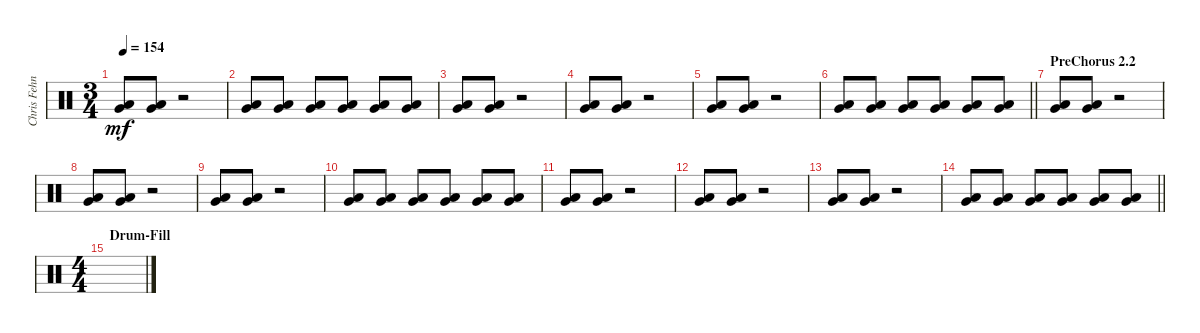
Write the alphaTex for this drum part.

\track ("Chris Fehn" "Chris Fehn") {instrument percussion}
\staff {score}
\articulation defaults
\ts (3 4)
\tempo 154
\clef neutral
\ks c
("Very Low Tom (hit)" "Low Floor Tom (hit)").8{dy mf} ("Very Low Tom (hit)" "Low Floor Tom (hit)").8 r.2 |
("Very Low Tom (hit)" "Low Floor Tom (hit)").8 ("Very Low Tom (hit)" "Low Floor Tom (hit)").8 ("Very Low Tom (hit)" "Low Floor Tom (hit)").8 ("Very Low Tom (hit)" "Low Floor Tom (hit)").8 ("Very Low Tom (hit)" "Low Floor Tom (hit)").8 ("Very Low Tom (hit)" "Low Floor Tom (hit)").8 |
("Very Low Tom (hit)" "Low Floor Tom (hit)").8 ("Very Low Tom (hit)" "Low Floor Tom (hit)").8 r.2 |
("Very Low Tom (hit)" "Low Floor Tom (hit)").8 ("Very Low Tom (hit)" "Low Floor Tom (hit)").8 r.2 |
("Very Low Tom (hit)" "Low Floor Tom (hit)").8 ("Very Low Tom (hit)" "Low Floor Tom (hit)").8 r.2 |
\barLineRight lightlight
("Very Low Tom (hit)" "Low Floor Tom (hit)").8 ("Very Low Tom (hit)" "Low Floor Tom (hit)").8 ("Very Low Tom (hit)" "Low Floor Tom (hit)").8 ("Very Low Tom (hit)" "Low Floor Tom (hit)").8 ("Very Low Tom (hit)" "Low Floor Tom (hit)").8 ("Very Low Tom (hit)" "Low Floor Tom (hit)").8 |
\section ("" "PreChorus 2.2")
("Very Low Tom (hit)" "Low Floor Tom (hit)").8 ("Very Low Tom (hit)" "Low Floor Tom (hit)").8 r.2 |
("Very Low Tom (hit)" "Low Floor Tom (hit)").8 ("Very Low Tom (hit)" "Low Floor Tom (hit)").8 r.2 |
("Very Low Tom (hit)" "Low Floor Tom (hit)").8 ("Very Low Tom (hit)" "Low Floor Tom (hit)").8 r.2 |
("Very Low Tom (hit)" "Low Floor Tom (hit)").8 ("Very Low Tom (hit)" "Low Floor Tom (hit)").8 ("Very Low Tom (hit)" "Low Floor Tom (hit)").8 ("Very Low Tom (hit)" "Low Floor Tom (hit)").8 ("Very Low Tom (hit)" "Low Floor Tom (hit)").8 ("Very Low Tom (hit)" "Low Floor Tom (hit)").8 |
("Very Low Tom (hit)" "Low Floor Tom (hit)").8 ("Very Low Tom (hit)" "Low Floor Tom (hit)").8 r.2 |
("Very Low Tom (hit)" "Low Floor Tom (hit)").8 ("Very Low Tom (hit)" "Low Floor Tom (hit)").8 r.2 |
("Very Low Tom (hit)" "Low Floor Tom (hit)").8 ("Very Low Tom (hit)" "Low Floor Tom (hit)").8 r.2 |
\barLineRight lightlight
("Very Low Tom (hit)" "Low Floor Tom (hit)").8 ("Very Low Tom (hit)" "Low Floor Tom (hit)").8 ("Very Low Tom (hit)" "Low Floor Tom (hit)").8 ("Very Low Tom (hit)" "Low Floor Tom (hit)").8 ("Very Low Tom (hit)" "Low Floor Tom (hit)").8 ("Very Low Tom (hit)" "Low Floor Tom (hit)").8 |
\ts (4 4)
\section ("" "Drum-Fill")
